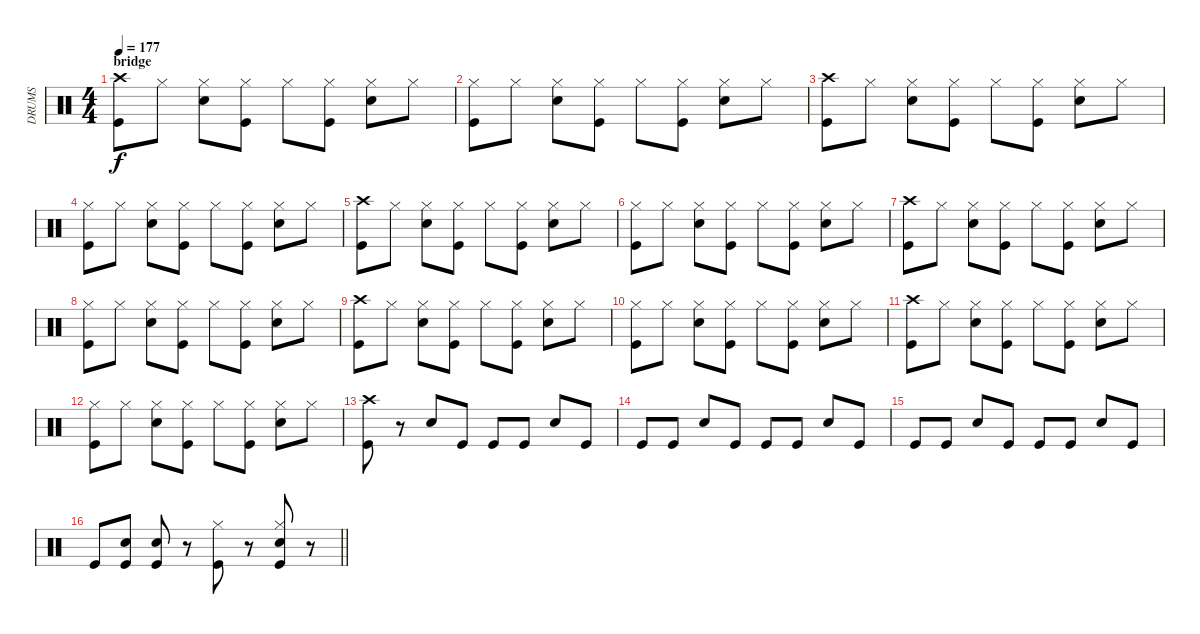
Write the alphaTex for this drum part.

\track ("DRUMS" "DRUMS") {instrument percussion}
\staff {score}
\articulation defaults
\ts (4 4)
\section ("" "bridge")
\tempo 177
\clef neutral
\ks c
("Crash high (hit)" "Kick (hit)").8{dy f} "Hi-Hat (closed)".8 ("Hi-Hat (closed)" "Snare (hit) 2").8 ("Hi-Hat (closed)" "Kick (hit)").8 "Hi-Hat (closed)".8 ("Hi-Hat (closed)" "Kick (hit)").8 ("Hi-Hat (closed)" "Snare (hit) 2").8 "Hi-Hat (closed)".8 |
("Hi-Hat (closed)" "Kick (hit)").8 "Hi-Hat (closed)".8 ("Hi-Hat (closed)" "Snare (hit) 2").8 ("Hi-Hat (closed)" "Kick (hit)").8 "Hi-Hat (closed)".8 ("Hi-Hat (closed)" "Kick (hit)").8 ("Hi-Hat (closed)" "Snare (hit) 2").8 "Hi-Hat (closed)".8 |
("Crash high (hit)" "Kick (hit)").8 "Hi-Hat (closed)".8 ("Hi-Hat (closed)" "Snare (hit) 2").8 ("Hi-Hat (closed)" "Kick (hit)").8 "Hi-Hat (closed)".8 ("Hi-Hat (closed)" "Kick (hit)").8 ("Hi-Hat (closed)" "Snare (hit) 2").8 "Hi-Hat (closed)".8 |
("Hi-Hat (closed)" "Kick (hit)").8 "Hi-Hat (closed)".8 ("Hi-Hat (closed)" "Snare (hit) 2").8 ("Hi-Hat (closed)" "Kick (hit)").8 "Hi-Hat (closed)".8 ("Hi-Hat (closed)" "Kick (hit)").8 ("Hi-Hat (closed)" "Snare (hit) 2").8 "Hi-Hat (closed)".8 |
("Crash high (hit)" "Kick (hit)").8 "Hi-Hat (closed)".8 ("Hi-Hat (closed)" "Snare (hit) 2").8 ("Hi-Hat (closed)" "Kick (hit)").8 "Hi-Hat (closed)".8 ("Hi-Hat (closed)" "Kick (hit)").8 ("Hi-Hat (closed)" "Snare (hit) 2").8 "Hi-Hat (closed)".8 |
("Hi-Hat (closed)" "Kick (hit)").8 "Hi-Hat (closed)".8 ("Hi-Hat (closed)" "Snare (hit) 2").8 ("Hi-Hat (closed)" "Kick (hit)").8 "Hi-Hat (closed)".8 ("Hi-Hat (closed)" "Kick (hit)").8 ("Hi-Hat (closed)" "Snare (hit) 2").8 "Hi-Hat (closed)".8 |
("Crash high (hit)" "Kick (hit)").8 "Hi-Hat (closed)".8 ("Hi-Hat (closed)" "Snare (hit) 2").8 ("Hi-Hat (closed)" "Kick (hit)").8 "Hi-Hat (closed)".8 ("Hi-Hat (closed)" "Kick (hit)").8 ("Hi-Hat (closed)" "Snare (hit) 2").8 "Hi-Hat (closed)".8 |
("Hi-Hat (closed)" "Kick (hit)").8 "Hi-Hat (closed)".8 ("Hi-Hat (closed)" "Snare (hit) 2").8 ("Hi-Hat (closed)" "Kick (hit)").8 "Hi-Hat (closed)".8 ("Hi-Hat (closed)" "Kick (hit)").8 ("Hi-Hat (closed)" "Snare (hit) 2").8 "Hi-Hat (closed)".8 |
("Crash high (hit)" "Kick (hit)").8 "Hi-Hat (closed)".8 ("Hi-Hat (closed)" "Snare (hit) 2").8 ("Hi-Hat (closed)" "Kick (hit)").8 "Hi-Hat (closed)".8 ("Hi-Hat (closed)" "Kick (hit)").8 ("Hi-Hat (closed)" "Snare (hit) 2").8 "Hi-Hat (closed)".8 |
("Hi-Hat (closed)" "Kick (hit)").8 "Hi-Hat (closed)".8 ("Hi-Hat (closed)" "Snare (hit) 2").8 ("Hi-Hat (closed)" "Kick (hit)").8 "Hi-Hat (closed)".8 ("Hi-Hat (closed)" "Kick (hit)").8 ("Hi-Hat (closed)" "Snare (hit) 2").8 "Hi-Hat (closed)".8 |
("Crash high (hit)" "Kick (hit)").8 "Hi-Hat (closed)".8 ("Hi-Hat (closed)" "Snare (hit) 2").8 ("Hi-Hat (closed)" "Kick (hit)").8 "Hi-Hat (closed)".8 ("Hi-Hat (closed)" "Kick (hit)").8 ("Hi-Hat (closed)" "Snare (hit) 2").8 "Hi-Hat (closed)".8 |
("Hi-Hat (closed)" "Kick (hit)").8 "Hi-Hat (closed)".8 ("Hi-Hat (closed)" "Snare (hit) 2").8 ("Hi-Hat (closed)" "Kick (hit)").8 "Hi-Hat (closed)".8 ("Hi-Hat (closed)" "Kick (hit)").8 ("Hi-Hat (closed)" "Snare (hit) 2").8 "Hi-Hat (closed)".8 |
("Crash high (hit)" "Kick (hit)").8 r.8 "Snare (hit) 2".8 "Kick (hit)".8 "Kick (hit)".8 "Kick (hit)".8 "Snare (hit) 2".8 "Kick (hit)".8 |
"Kick (hit)".8 "Kick (hit)".8 "Snare (hit) 2".8 "Kick (hit)".8 "Kick (hit)".8 "Kick (hit)".8 "Snare (hit) 2".8 "Kick (hit)".8 |
"Kick (hit)".8 "Kick (hit)".8 "Snare (hit) 2".8 "Kick (hit)".8 "Kick (hit)".8 "Kick (hit)".8 "Snare (hit) 2".8 "Kick (hit)".8 |
\barLineRight lightlight "Kick (hit)".8
("Snare (hit) 2" "Kick (hit)").8 ("Snare (hit) 2" "Kick (hit)").8 r.8 ("Hi-Hat (closed)" "Kick (hit)").8 r.8 ("Hi-Hat (closed)" "Snare (hit) 2" "Kick (hit)").8 r.8
